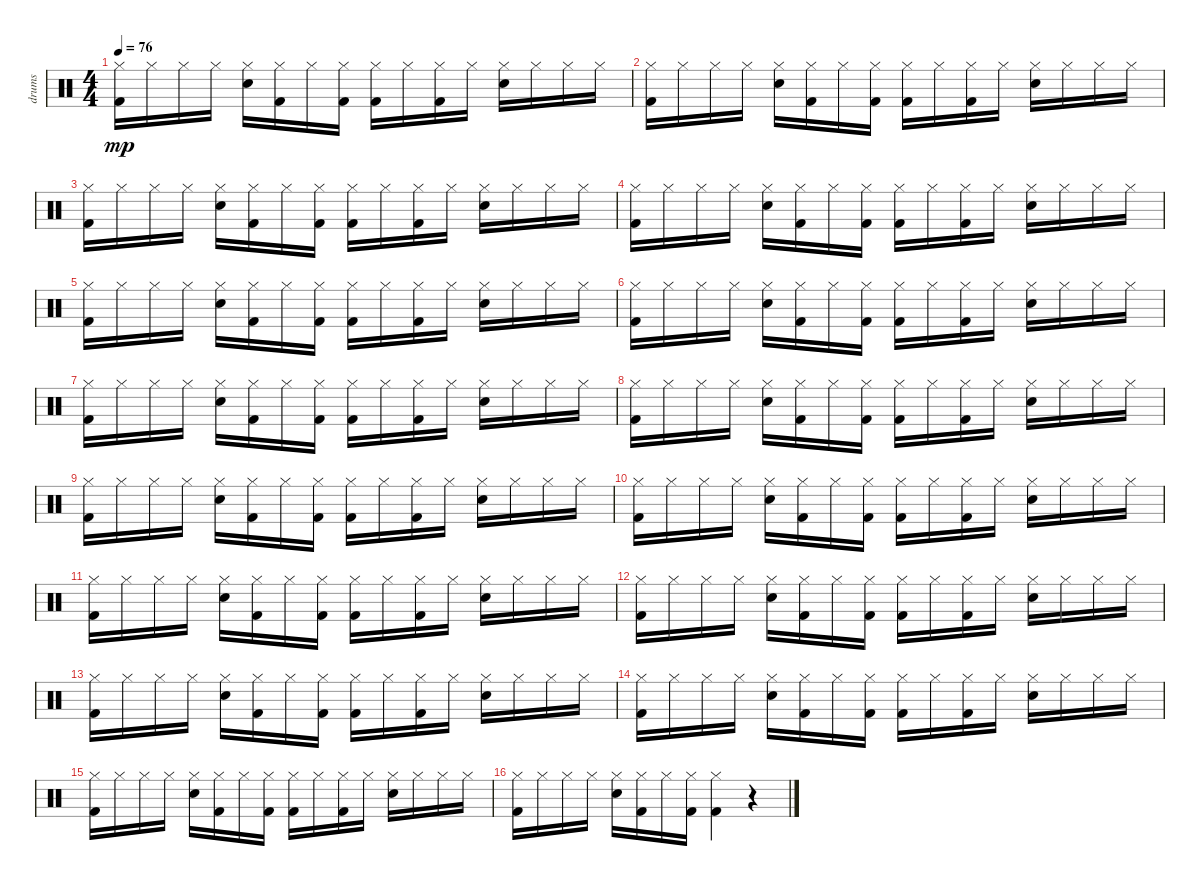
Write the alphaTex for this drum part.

\track ("drums" "drums") {instrument percussion}
\staff {score}
\articulation defaults
\ts (4 4)
\tempo 76
\clef neutral
\ks c
("Hi-Hat (closed)" "Kick (hit) 2").16{dy mp} "Hi-Hat (closed)".16 "Hi-Hat (closed)".16 "Hi-Hat (closed)".16 ("Hi-Hat (closed)" "Snare (hit) 2").16 ("Hi-Hat (closed)" "Kick (hit) 2").16 "Hi-Hat (closed)".16 ("Hi-Hat (closed)" "Kick (hit) 2").16 ("Hi-Hat (closed)" "Kick (hit) 2").16 "Hi-Hat (closed)".16 ("Hi-Hat (closed)" "Kick (hit) 2").16 "Hi-Hat (closed)".16 ("Snare (hit) 2" "Hi-Hat (closed)").16 "Hi-Hat (closed)".16 "Hi-Hat (closed)".16 "Hi-Hat (closed)".16 |
("Hi-Hat (closed)" "Kick (hit) 2").16 "Hi-Hat (closed)".16 "Hi-Hat (closed)".16 "Hi-Hat (closed)".16 ("Hi-Hat (closed)" "Snare (hit) 2").16 ("Hi-Hat (closed)" "Kick (hit) 2").16 "Hi-Hat (closed)".16 ("Hi-Hat (closed)" "Kick (hit) 2").16 ("Hi-Hat (closed)" "Kick (hit) 2").16 "Hi-Hat (closed)".16 ("Hi-Hat (closed)" "Kick (hit) 2").16 "Hi-Hat (closed)".16 ("Snare (hit) 2" "Hi-Hat (closed)").16 "Hi-Hat (closed)".16 "Hi-Hat (closed)".16 "Hi-Hat (closed)".16 |
("Hi-Hat (closed)" "Kick (hit) 2").16 "Hi-Hat (closed)".16 "Hi-Hat (closed)".16 "Hi-Hat (closed)".16 ("Hi-Hat (closed)" "Snare (hit) 2").16 ("Hi-Hat (closed)" "Kick (hit) 2").16 "Hi-Hat (closed)".16 ("Hi-Hat (closed)" "Kick (hit) 2").16 ("Hi-Hat (closed)" "Kick (hit) 2").16 "Hi-Hat (closed)".16 ("Hi-Hat (closed)" "Kick (hit) 2").16 "Hi-Hat (closed)".16 ("Snare (hit) 2" "Hi-Hat (closed)").16 "Hi-Hat (closed)".16 "Hi-Hat (closed)".16 "Hi-Hat (closed)".16 |
("Hi-Hat (closed)" "Kick (hit) 2").16 "Hi-Hat (closed)".16 "Hi-Hat (closed)".16 "Hi-Hat (closed)".16 ("Hi-Hat (closed)" "Snare (hit) 2").16 ("Hi-Hat (closed)" "Kick (hit) 2").16 "Hi-Hat (closed)".16 ("Hi-Hat (closed)" "Kick (hit) 2").16 ("Hi-Hat (closed)" "Kick (hit) 2").16 "Hi-Hat (closed)".16 ("Hi-Hat (closed)" "Kick (hit) 2").16 "Hi-Hat (closed)".16 ("Snare (hit) 2" "Hi-Hat (closed)").16 "Hi-Hat (closed)".16 "Hi-Hat (closed)".16 "Hi-Hat (closed)".16 |
("Hi-Hat (closed)" "Kick (hit) 2").16 "Hi-Hat (closed)".16 "Hi-Hat (closed)".16 "Hi-Hat (closed)".16 ("Hi-Hat (closed)" "Snare (hit) 2").16 ("Hi-Hat (closed)" "Kick (hit) 2").16 "Hi-Hat (closed)".16 ("Hi-Hat (closed)" "Kick (hit) 2").16 ("Hi-Hat (closed)" "Kick (hit) 2").16 "Hi-Hat (closed)".16 ("Hi-Hat (closed)" "Kick (hit) 2").16 "Hi-Hat (closed)".16 ("Snare (hit) 2" "Hi-Hat (closed)").16 "Hi-Hat (closed)".16 "Hi-Hat (closed)".16 "Hi-Hat (closed)".16 |
("Hi-Hat (closed)" "Kick (hit) 2").16 "Hi-Hat (closed)".16 "Hi-Hat (closed)".16 "Hi-Hat (closed)".16 ("Hi-Hat (closed)" "Snare (hit) 2").16 ("Hi-Hat (closed)" "Kick (hit) 2").16 "Hi-Hat (closed)".16 ("Hi-Hat (closed)" "Kick (hit) 2").16 ("Hi-Hat (closed)" "Kick (hit) 2").16 "Hi-Hat (closed)".16 ("Hi-Hat (closed)" "Kick (hit) 2").16 "Hi-Hat (closed)".16 ("Snare (hit) 2" "Hi-Hat (closed)").16 "Hi-Hat (closed)".16 "Hi-Hat (closed)".16 "Hi-Hat (closed)".16 |
("Hi-Hat (closed)" "Kick (hit) 2").16 "Hi-Hat (closed)".16 "Hi-Hat (closed)".16 "Hi-Hat (closed)".16 ("Hi-Hat (closed)" "Snare (hit) 2").16 ("Hi-Hat (closed)" "Kick (hit) 2").16 "Hi-Hat (closed)".16 ("Hi-Hat (closed)" "Kick (hit) 2").16 ("Hi-Hat (closed)" "Kick (hit) 2").16 "Hi-Hat (closed)".16 ("Hi-Hat (closed)" "Kick (hit) 2").16 "Hi-Hat (closed)".16 ("Snare (hit) 2" "Hi-Hat (closed)").16 "Hi-Hat (closed)".16 "Hi-Hat (closed)".16 "Hi-Hat (closed)".16 |
("Hi-Hat (closed)" "Kick (hit) 2").16 "Hi-Hat (closed)".16 "Hi-Hat (closed)".16 "Hi-Hat (closed)".16 ("Hi-Hat (closed)" "Snare (hit) 2").16 ("Hi-Hat (closed)" "Kick (hit) 2").16 "Hi-Hat (closed)".16 ("Hi-Hat (closed)" "Kick (hit) 2").16 ("Hi-Hat (closed)" "Kick (hit) 2").16 "Hi-Hat (closed)".16 ("Hi-Hat (closed)" "Kick (hit) 2").16 "Hi-Hat (closed)".16 ("Snare (hit) 2" "Hi-Hat (closed)").16 "Hi-Hat (closed)".16 "Hi-Hat (closed)".16 "Hi-Hat (closed)".16 |
("Hi-Hat (closed)" "Kick (hit) 2").16 "Hi-Hat (closed)".16 "Hi-Hat (closed)".16 "Hi-Hat (closed)".16 ("Hi-Hat (closed)" "Snare (hit) 2").16 ("Hi-Hat (closed)" "Kick (hit) 2").16 "Hi-Hat (closed)".16 ("Hi-Hat (closed)" "Kick (hit) 2").16 ("Hi-Hat (closed)" "Kick (hit) 2").16 "Hi-Hat (closed)".16 ("Hi-Hat (closed)" "Kick (hit) 2").16 "Hi-Hat (closed)".16 ("Snare (hit) 2" "Hi-Hat (closed)").16 "Hi-Hat (closed)".16 "Hi-Hat (closed)".16 "Hi-Hat (closed)".16 |
("Hi-Hat (closed)" "Kick (hit) 2").16 "Hi-Hat (closed)".16 "Hi-Hat (closed)".16 "Hi-Hat (closed)".16 ("Hi-Hat (closed)" "Snare (hit) 2").16 ("Hi-Hat (closed)" "Kick (hit) 2").16 "Hi-Hat (closed)".16 ("Hi-Hat (closed)" "Kick (hit) 2").16 ("Hi-Hat (closed)" "Kick (hit) 2").16 "Hi-Hat (closed)".16 ("Hi-Hat (closed)" "Kick (hit) 2").16 "Hi-Hat (closed)".16 ("Snare (hit) 2" "Hi-Hat (closed)").16 "Hi-Hat (closed)".16 "Hi-Hat (closed)".16 "Hi-Hat (closed)".16 |
("Hi-Hat (closed)" "Kick (hit) 2").16 "Hi-Hat (closed)".16 "Hi-Hat (closed)".16 "Hi-Hat (closed)".16 ("Hi-Hat (closed)" "Snare (hit) 2").16 ("Hi-Hat (closed)" "Kick (hit) 2").16 "Hi-Hat (closed)".16 ("Hi-Hat (closed)" "Kick (hit) 2").16 ("Hi-Hat (closed)" "Kick (hit) 2").16 "Hi-Hat (closed)".16 ("Hi-Hat (closed)" "Kick (hit) 2").16 "Hi-Hat (closed)".16 ("Snare (hit) 2" "Hi-Hat (closed)").16 "Hi-Hat (closed)".16 "Hi-Hat (closed)".16 "Hi-Hat (closed)".16 |
("Hi-Hat (closed)" "Kick (hit) 2").16 "Hi-Hat (closed)".16 "Hi-Hat (closed)".16 "Hi-Hat (closed)".16 ("Hi-Hat (closed)" "Snare (hit) 2").16 ("Hi-Hat (closed)" "Kick (hit) 2").16 "Hi-Hat (closed)".16 ("Hi-Hat (closed)" "Kick (hit) 2").16 ("Hi-Hat (closed)" "Kick (hit) 2").16 "Hi-Hat (closed)".16 ("Hi-Hat (closed)" "Kick (hit) 2").16 "Hi-Hat (closed)".16 ("Snare (hit) 2" "Hi-Hat (closed)").16 "Hi-Hat (closed)".16 "Hi-Hat (closed)".16 "Hi-Hat (closed)".16 |
("Hi-Hat (closed)" "Kick (hit) 2").16 "Hi-Hat (closed)".16 "Hi-Hat (closed)".16 "Hi-Hat (closed)".16 ("Hi-Hat (closed)" "Snare (hit) 2").16 ("Hi-Hat (closed)" "Kick (hit) 2").16 "Hi-Hat (closed)".16 ("Hi-Hat (closed)" "Kick (hit) 2").16 ("Hi-Hat (closed)" "Kick (hit) 2").16 "Hi-Hat (closed)".16 ("Hi-Hat (closed)" "Kick (hit) 2").16 "Hi-Hat (closed)".16 ("Snare (hit) 2" "Hi-Hat (closed)").16 "Hi-Hat (closed)".16 "Hi-Hat (closed)".16 "Hi-Hat (closed)".16 |
("Hi-Hat (closed)" "Kick (hit) 2").16 "Hi-Hat (closed)".16 "Hi-Hat (closed)".16 "Hi-Hat (closed)".16 ("Hi-Hat (closed)" "Snare (hit) 2").16 ("Hi-Hat (closed)" "Kick (hit) 2").16 "Hi-Hat (closed)".16 ("Hi-Hat (closed)" "Kick (hit) 2").16 ("Hi-Hat (closed)" "Kick (hit) 2").16 "Hi-Hat (closed)".16 ("Hi-Hat (closed)" "Kick (hit) 2").16 "Hi-Hat (closed)".16 ("Snare (hit) 2" "Hi-Hat (closed)").16 "Hi-Hat (closed)".16 "Hi-Hat (closed)".16 "Hi-Hat (closed)".16 |
("Hi-Hat (closed)" "Kick (hit) 2").16 "Hi-Hat (closed)".16 "Hi-Hat (closed)".16 "Hi-Hat (closed)".16 ("Hi-Hat (closed)" "Snare (hit) 2").16 ("Hi-Hat (closed)" "Kick (hit) 2").16 "Hi-Hat (closed)".16 ("Hi-Hat (closed)" "Kick (hit) 2").16 ("Hi-Hat (closed)" "Kick (hit) 2").16 "Hi-Hat (closed)".16 ("Hi-Hat (closed)" "Kick (hit) 2").16 "Hi-Hat (closed)".16 ("Snare (hit) 2" "Hi-Hat (closed)").16 "Hi-Hat (closed)".16 "Hi-Hat (closed)".16 "Hi-Hat (closed)".16 |
("Hi-Hat (closed)" "Kick (hit) 2").16 "Hi-Hat (closed)".16 "Hi-Hat (closed)".16 "Hi-Hat (closed)".16 ("Hi-Hat (closed)" "Snare (hit) 2").16 ("Hi-Hat (closed)" "Kick (hit) 2").16 "Hi-Hat (closed)".16 ("Hi-Hat (closed)" "Kick (hit) 2").16 ("Hi-Hat (closed)" "Kick (hit) 2").4 r.4
